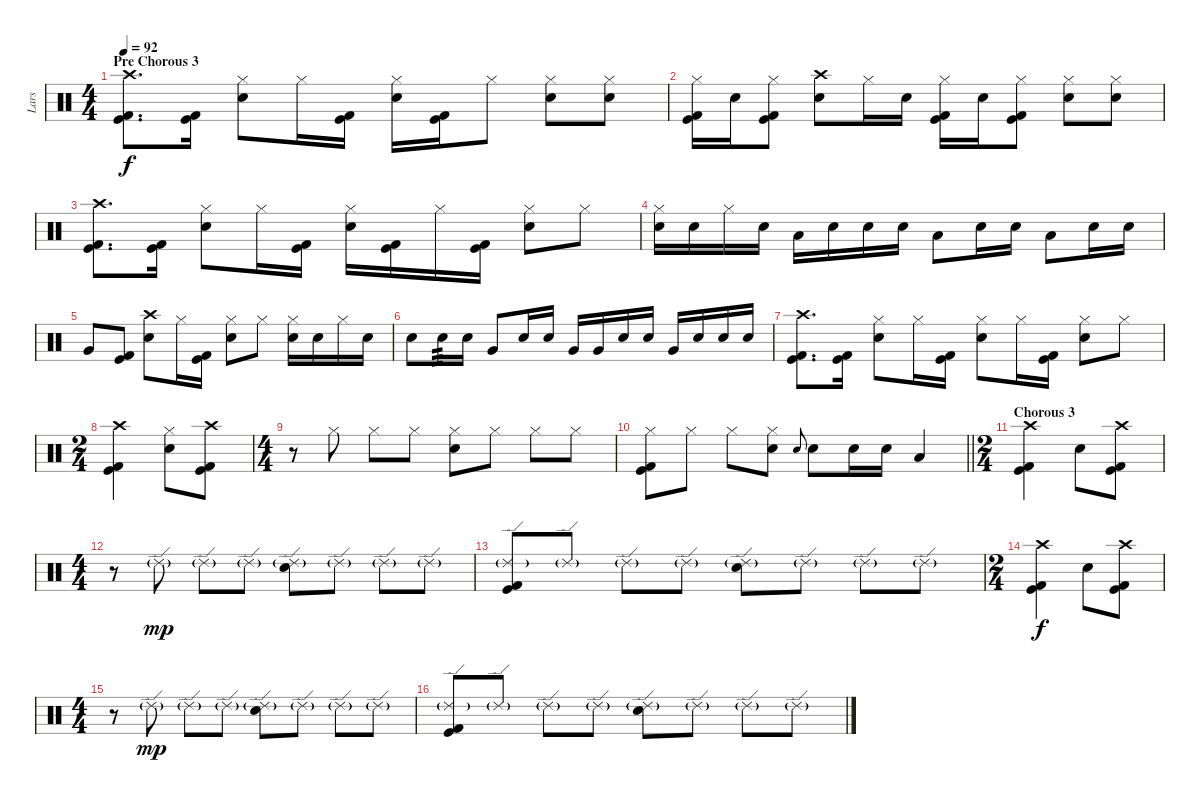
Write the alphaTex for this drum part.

\track ("Lars" "Lars") {instrument percussion}
\staff {score}
\articulation defaults
\ts (4 4)
\section ("" "Pre Chorous 3")
\tempo 92
\clef neutral
\ks c
("Crash high (hit)" "Kick (hit)" "Kick (hit) 2").8{d dy f} ("Kick (hit)" "Kick (hit) 2").16 ("Hi-Hat (closed)" "Electric Snare (hit)").8 "Hi-Hat (closed)".16 ("Kick (hit)" "Kick (hit) 2").16 ("Hi-Hat (closed)" "Electric Snare (hit)").16 ("Kick (hit)" "Kick (hit) 2").16 "Hi-Hat (closed)".8 ("Hi-Hat (closed)" "Electric Snare (hit)").8 ("Hi-Hat (closed)" "Electric Snare (hit)").8 |
("Hi-Hat (closed)" "Kick (hit)" "Kick (hit) 2").16 "Electric Snare (hit)".16 ("Hi-Hat (closed)" "Kick (hit)" "Kick (hit) 2").8 ("Crash high (hit)" "Electric Snare (hit)").8 "Hi-Hat (closed)".16 "Electric Snare (hit)".16 ("Hi-Hat (closed)" "Kick (hit)" "Kick (hit) 2").16 "Electric Snare (hit)".16 ("Hi-Hat (closed)" "Kick (hit)" "Kick (hit) 2").8 ("Hi-Hat (closed)" "Electric Snare (hit)").8 ("Hi-Hat (closed)" "Electric Snare (hit)").8 |
("Crash high (hit)" "Kick (hit)" "Kick (hit) 2").8{d} ("Kick (hit)" "Kick (hit) 2").16 ("Hi-Hat (closed)" "Electric Snare (hit)").8 "Hi-Hat (closed)".16 ("Kick (hit)" "Kick (hit) 2").16 ("Hi-Hat (closed)" "Electric Snare (hit)").16 ("Kick (hit)" "Kick (hit) 2").16 "Hi-Hat (closed)".16 ("Kick (hit)" "Kick (hit) 2").16 ("Hi-Hat (closed)" "Electric Snare (hit)").8 "Hi-Hat (closed)".8 |
("Hi-Hat (closed)" "Electric Snare (hit)").16 "Electric Snare (hit)".16 "Hi-Hat (closed)".16 "Electric Snare (hit)".16 "Low Tom (hit)".16 "Electric Snare (hit)".16 "Electric Snare (hit)".16 "Electric Snare (hit)".16 "Low Tom (hit)".8 "Electric Snare (hit)".16 "Electric Snare (hit)".16 "Low Tom (hit)".8 "Electric Snare (hit)".16 "Electric Snare (hit)".16 |
"Very Low Tom (hit)".8 ("Kick (hit)" "Kick (hit) 2").8 ("Crash high (hit)" "Electric Snare (hit)").8 "Hi-Hat (closed)".16 ("Kick (hit)" "Kick (hit) 2").16 ("Hi-Hat (closed)" "Electric Snare (hit)").8 "Hi-Hat (closed)".8 ("Hi-Hat (closed)" "Electric Snare (hit)").16 "Electric Snare (hit)".16 "Hi-Hat (closed)".16 "Electric Snare (hit)".16 |
"Electric Snare (hit)".8 "Electric Snare (hit)".16{tp 3} "Electric Snare (hit)".16 "Very Low Tom (hit)".8 "Electric Snare (hit)".16 "Electric Snare (hit)".16 "Very Low Tom (hit)".16 "Very Low Tom (hit)".16 "Electric Snare (hit)".16 "Electric Snare (hit)".16 "Very Low Tom (hit)".16 "Electric Snare (hit)".16 "Electric Snare (hit)".16 "Electric Snare (hit)".16 |
("Crash high (hit)" "Kick (hit)" "Kick (hit) 2").8{d} ("Kick (hit)" "Kick (hit) 2").16 ("Hi-Hat (closed)" "Electric Snare (hit)").8 "Hi-Hat (closed)".16 ("Kick (hit)" "Kick (hit) 2").16 ("Hi-Hat (closed)" "Electric Snare (hit)").8 "Hi-Hat (closed)".16 ("Kick (hit)" "Kick (hit) 2").16 ("Hi-Hat (closed)" "Electric Snare (hit)").8 "Hi-Hat (closed)".8 |
\ts (2 4)
("Crash high (hit)" "Kick (hit)" "Kick (hit) 2").4 ("Hi-Hat (closed)" "Electric Snare (hit)").8 ("Crash high (hit)" "Kick (hit)" "Kick (hit) 2").8 |
\ts (4 4)
r.8 "Hi-Hat (closed)".8 "Hi-Hat (closed)".8 "Hi-Hat (closed)".8 ("Hi-Hat (closed)" "Electric Snare (hit)").8 "Hi-Hat (closed)".8 "Hi-Hat (closed)".8 "Hi-Hat (closed)".8 |
\barLineRight lightlight
("Hi-Hat (closed)" "Kick (hit)" "Kick (hit) 2").8 "Hi-Hat (closed)".8 "Hi-Hat (closed)".8 ("Hi-Hat (closed)" "Electric Snare (hit)").8 "Electric Snare (hit)".8{gr onbeat} "Electric Snare (hit)".8 "Electric Snare (hit)".16 "Electric Snare (hit)".16 "Low Tom (hit)".4 |
\ts (2 4)
\section ("" "Chorous 3")
("Crash high (hit)" "Kick (hit)" "Kick (hit) 2").4 "Electric Snare (hit)".8 ("Crash high (hit)" "Kick (hit)" "Kick (hit) 2").8 |
\ts (4 4)
r.8 "Ride (edge) 2"{g}.8{dy mp} "Ride (edge) 2"{g}.8 "Ride (edge) 2"{g}.8 ("Ride (edge) 2"{g} "Electric Snare (hit)").8 "Ride (edge) 2"{g}.8 "Ride (edge) 2"{g}.8 "Ride (edge) 2"{g}.8 |
("Ride (edge) 2"{g} "Kick (hit)" "Kick (hit) 2").8 "Ride (edge) 2"{g}.8 "Ride (edge) 2"{g}.8 "Ride (edge) 2"{g}.8 ("Ride (edge) 2"{g} "Electric Snare (hit)").8 "Ride (edge) 2"{g}.8 "Ride (edge) 2"{g}.8 "Ride (edge) 2"{g}.8 |
\ts (2 4)
("Crash high (hit)" "Kick (hit)" "Kick (hit) 2").4{dy f} "Electric Snare (hit)".8 ("Crash high (hit)" "Kick (hit)" "Kick (hit) 2").8 |
\ts (4 4)
r.8 "Ride (edge) 2"{g}.8{dy mp} "Ride (edge) 2"{g}.8 "Ride (edge) 2"{g}.8 ("Ride (edge) 2"{g} "Electric Snare (hit)").8 "Ride (edge) 2"{g}.8 "Ride (edge) 2"{g}.8 "Ride (edge) 2"{g}.8 |
("Ride (edge) 2"{g} "Kick (hit)" "Kick (hit) 2").8 "Ride (edge) 2"{g}.8 "Ride (edge) 2"{g}.8 "Ride (edge) 2"{g}.8 ("Ride (edge) 2"{g} "Electric Snare (hit)").8 "Ride (edge) 2"{g}.8 "Ride (edge) 2"{g}.8 "Ride (edge) 2"{g}.8
